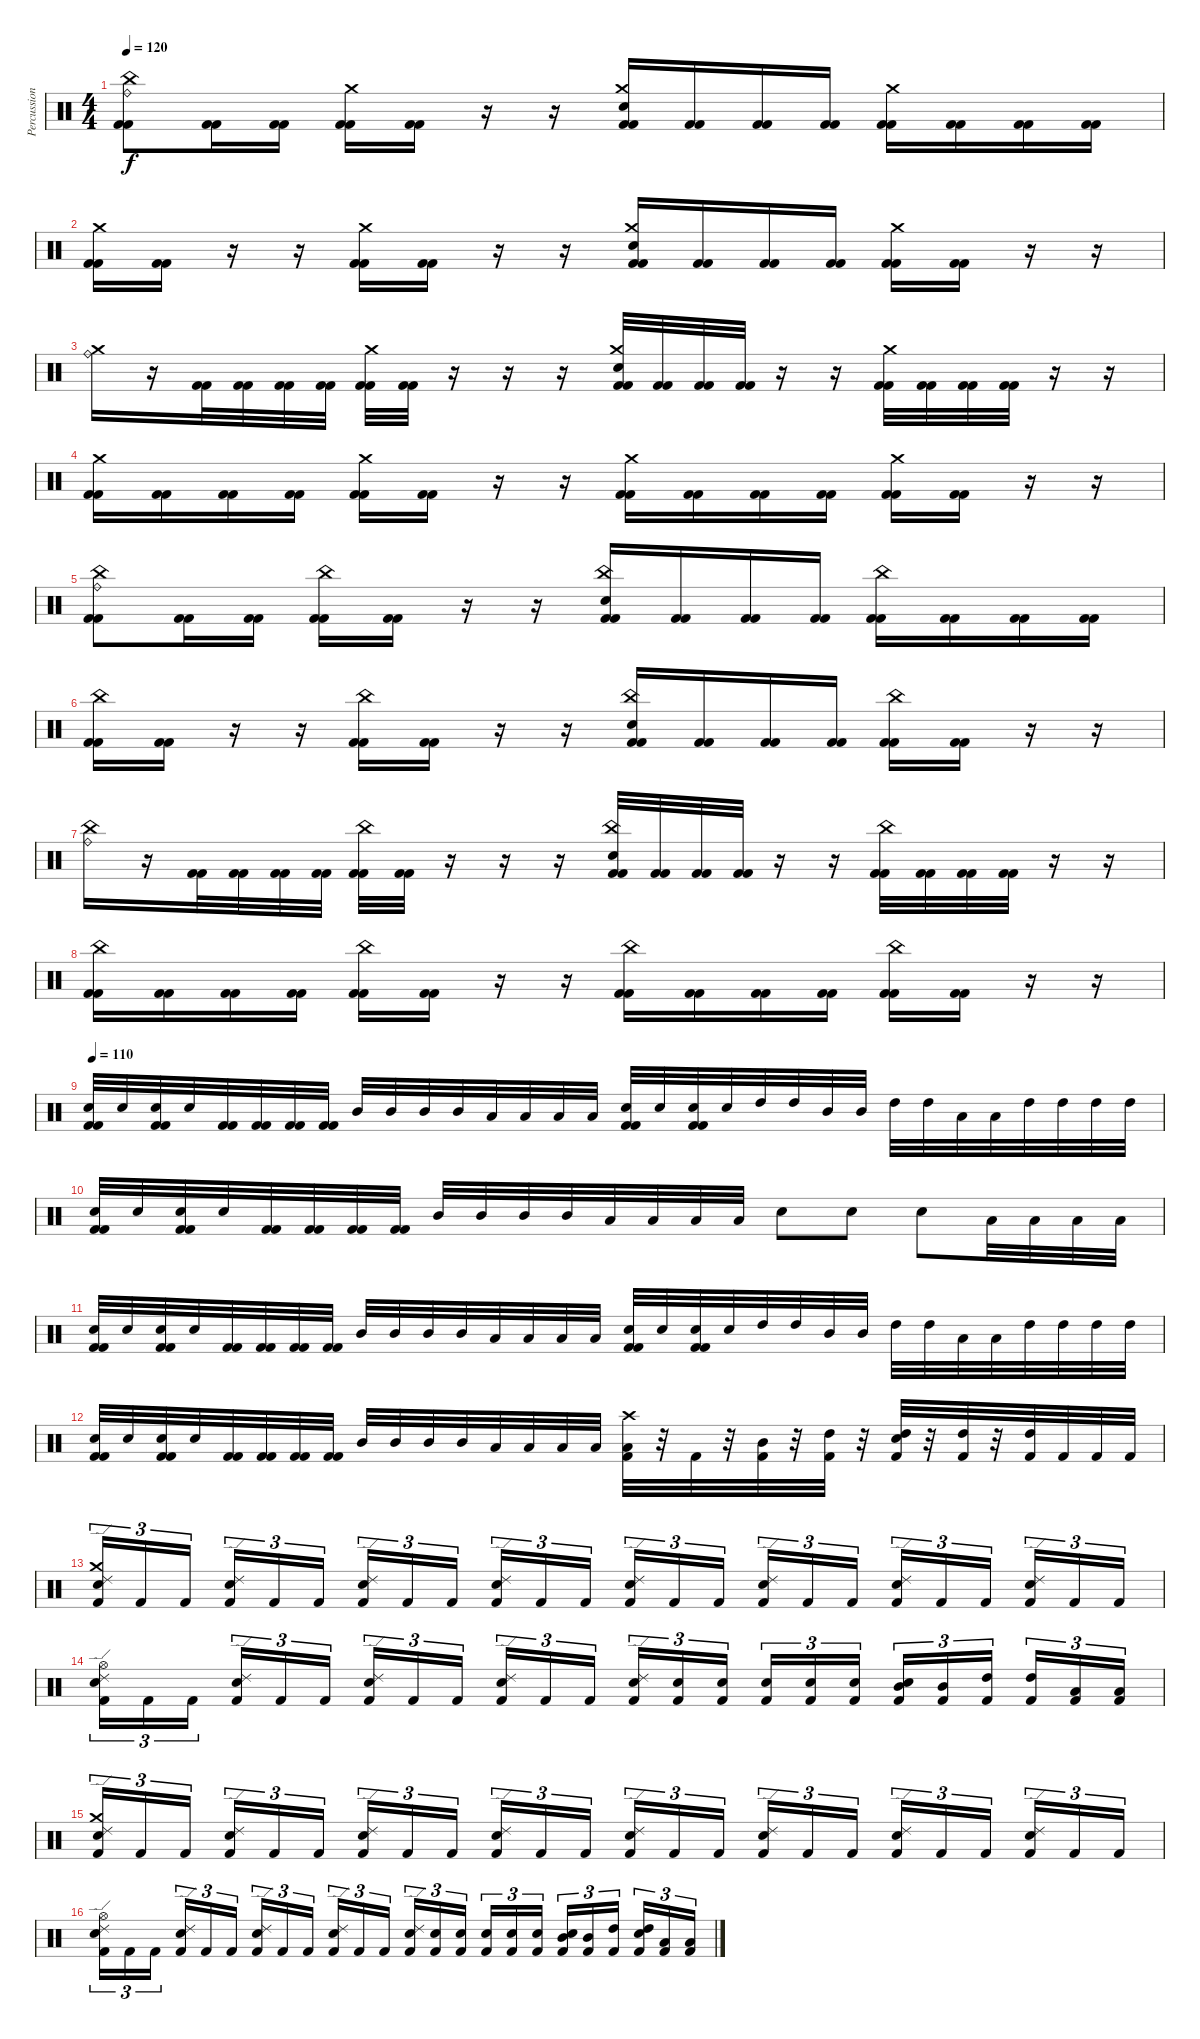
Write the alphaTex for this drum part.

\track ("Percussion" "Percussion") {instrument percussion}
\staff {score}
\articulation defaults
\ts (4 4)
\tempo 120
\clef neutral
\ks c
("Kick (hit) 2" "China (hit)" "Ride (bell)" "Kick (hit) 2").8{dy f} ("Kick (hit) 2" "Kick (hit) 2").16 ("Kick (hit) 2" "Kick (hit) 2").16 ("Kick (hit) 2" "Crash medium (hit)" "Kick (hit) 2").16 ("Kick (hit) 2" "Kick (hit) 2").16 r.16 r.16 ("Kick (hit) 2" "Crash medium (hit)" "Electric Snare (hit)" "Kick (hit) 2").16 ("Kick (hit) 2" "Kick (hit) 2").16 ("Kick (hit) 2" "Kick (hit) 2").16 ("Kick (hit) 2" "Kick (hit) 2").16 ("Kick (hit) 2" "Crash medium (hit)" "Kick (hit) 2").16 ("Kick (hit) 2" "Kick (hit) 2").16 ("Kick (hit) 2" "Kick (hit) 2").16 ("Kick (hit) 2" "Kick (hit) 2").16 |
("Kick (hit) 2" "Crash medium (hit)" "Kick (hit) 2").16 ("Kick (hit) 2" "Kick (hit) 2").16 r.16 r.16 ("Kick (hit) 2" "Crash medium (hit)" "Kick (hit) 2").16 ("Kick (hit) 2" "Kick (hit) 2").16 r.16 r.16 ("Kick (hit) 2" "Crash medium (hit)" "Electric Snare (hit)" "Kick (hit) 2").16 ("Kick (hit) 2" "Kick (hit) 2").16 ("Kick (hit) 2" "Kick (hit) 2").16 ("Kick (hit) 2" "Kick (hit) 2").16 ("Kick (hit) 2" "Crash medium (hit)" "Kick (hit) 2").16 ("Kick (hit) 2" "Kick (hit) 2").16 r.16 r.16 |
("Crash medium (hit)" "Ride (bell)").16 r.16 ("Kick (hit) 2" "Kick (hit) 2").32 ("Kick (hit) 2" "Kick (hit) 2").32 ("Kick (hit) 2" "Kick (hit) 2").32 ("Kick (hit) 2" "Kick (hit) 2").32 ("Kick (hit) 2" "Crash medium (hit)" "Kick (hit) 2").32 ("Kick (hit) 2" "Kick (hit) 2").32 r.16 r.16 r.16 ("Kick (hit) 2" "Crash medium (hit)" "Electric Snare (hit)" "Kick (hit) 2").32 ("Kick (hit) 2" "Kick (hit) 2").32 ("Kick (hit) 2" "Kick (hit) 2").32 ("Kick (hit) 2" "Kick (hit) 2").32 r.16 r.16 ("Kick (hit) 2" "Crash medium (hit)" "Kick (hit) 2").32 ("Kick (hit) 2" "Kick (hit) 2").32 ("Kick (hit) 2" "Kick (hit) 2").32 ("Kick (hit) 2" "Kick (hit) 2").32 r.16 r.16 |
("Kick (hit) 2" "Crash medium (hit)" "Kick (hit) 2").16 ("Kick (hit) 2" "Kick (hit) 2").16 ("Kick (hit) 2" "Kick (hit) 2").16 ("Kick (hit) 2" "Kick (hit) 2").16 ("Kick (hit) 2" "Crash medium (hit)" "Kick (hit) 2").16 ("Kick (hit) 2" "Kick (hit) 2").16 r.16 r.16 ("Kick (hit) 2" "Crash medium (hit)" "Kick (hit) 2").16 ("Kick (hit) 2" "Kick (hit) 2").16 ("Kick (hit) 2" "Kick (hit) 2").16 ("Kick (hit) 2" "Kick (hit) 2").16 ("Kick (hit) 2" "Crash medium (hit)" "Kick (hit) 2").16 ("Kick (hit) 2" "Kick (hit) 2").16 r.16 r.16 |
("Kick (hit) 2" "China (hit)" "Ride (bell)" "Kick (hit) 2").8 ("Kick (hit) 2" "Kick (hit) 2").16 ("Kick (hit) 2" "Kick (hit) 2").16 ("Kick (hit) 2" "China (hit)" "Kick (hit) 2").16 ("Kick (hit) 2" "Kick (hit) 2").16 r.16 r.16 ("Kick (hit) 2" "China (hit)" "Electric Snare (hit)" "Kick (hit) 2").16 ("Kick (hit) 2" "Kick (hit) 2").16 ("Kick (hit) 2" "Kick (hit) 2").16 ("Kick (hit) 2" "Kick (hit) 2").16 ("Kick (hit) 2" "China (hit)" "Kick (hit) 2").16 ("Kick (hit) 2" "Kick (hit) 2").16 ("Kick (hit) 2" "Kick (hit) 2").16 ("Kick (hit) 2" "Kick (hit) 2").16 |
("Kick (hit) 2" "China (hit)" "Kick (hit) 2").16 ("Kick (hit) 2" "Kick (hit) 2").16 r.16 r.16 ("Kick (hit) 2" "China (hit)" "Kick (hit) 2").16 ("Kick (hit) 2" "Kick (hit) 2").16 r.16 r.16 ("Kick (hit) 2" "China (hit)" "Electric Snare (hit)" "Kick (hit) 2").16 ("Kick (hit) 2" "Kick (hit) 2").16 ("Kick (hit) 2" "Kick (hit) 2").16 ("Kick (hit) 2" "Kick (hit) 2").16 ("Kick (hit) 2" "China (hit)" "Kick (hit) 2").16 ("Kick (hit) 2" "Kick (hit) 2").16 r.16 r.16 |
("China (hit)" "Ride (bell)").16 r.16 ("Kick (hit) 2" "Kick (hit) 2").32 ("Kick (hit) 2" "Kick (hit) 2").32 ("Kick (hit) 2" "Kick (hit) 2").32 ("Kick (hit) 2" "Kick (hit) 2").32 ("Kick (hit) 2" "China (hit)" "Kick (hit) 2").32 ("Kick (hit) 2" "Kick (hit) 2").32 r.16 r.16 r.16 ("Kick (hit) 2" "China (hit)" "Electric Snare (hit)" "Kick (hit) 2").32 ("Kick (hit) 2" "Kick (hit) 2").32 ("Kick (hit) 2" "Kick (hit) 2").32 ("Kick (hit) 2" "Kick (hit) 2").32 r.16 r.16 ("Kick (hit) 2" "China (hit)" "Kick (hit) 2").32 ("Kick (hit) 2" "Kick (hit) 2").32 ("Kick (hit) 2" "Kick (hit) 2").32 ("Kick (hit) 2" "Kick (hit) 2").32 r.16 r.16 |
("Kick (hit) 2" "China (hit)" "Kick (hit) 2").16 ("Kick (hit) 2" "Kick (hit) 2").16 ("Kick (hit) 2" "Kick (hit) 2").16 ("Kick (hit) 2" "Kick (hit) 2").16 ("Kick (hit) 2" "China (hit)" "Kick (hit) 2").16 ("Kick (hit) 2" "Kick (hit) 2").16 r.16 r.16 ("Kick (hit) 2" "China (hit)" "Kick (hit) 2").16 ("Kick (hit) 2" "Kick (hit) 2").16 ("Kick (hit) 2" "Kick (hit) 2").16 ("Kick (hit) 2" "Kick (hit) 2").16 ("Kick (hit) 2" "China (hit)" "Kick (hit) 2").16 ("Kick (hit) 2" "Kick (hit) 2").16 r.16 r.16 |
\tempo 110
("Kick (hit) 2" "Electric Snare (hit)" "Kick (hit) 2").32 "Electric Snare (hit)".32 ("Kick (hit) 2" "Electric Snare (hit)" "Kick (hit) 2").32 "Electric Snare (hit)".32 ("Kick (hit) 2" "Kick (hit) 2").32 ("Kick (hit) 2" "Kick (hit) 2").32 ("Kick (hit) 2" "Kick (hit) 2").32 ("Kick (hit) 2" "Kick (hit) 2").32 "Mid Tom (hit)".32 "Mid Tom (hit)".32 "Mid Tom (hit)".32 "Mid Tom (hit)".32 "Low Tom (hit)".32 "Low Tom (hit)".32 "Low Tom (hit)".32 "Low Tom (hit)".32 ("Kick (hit) 2" "Electric Snare (hit)" "Kick (hit) 2").32 "Electric Snare (hit)".32 ("Kick (hit) 2" "Electric Snare (hit)" "Kick (hit) 2").32 "Electric Snare (hit)".32 "High Tom (hit)".32 "High Tom (hit)".32 "Mid Tom (hit)".32 "Mid Tom (hit)".32 "High Tom (hit)".32 "High Tom (hit)".32 "Low Tom (hit)".32 "Low Tom (hit)".32 "High Tom (hit)".32 "High Tom (hit)".32 "High Tom (hit)".32 "High Tom (hit)".32 |
("Kick (hit) 2" "Electric Snare (hit)" "Kick (hit) 2").32 "Electric Snare (hit)".32 ("Kick (hit) 2" "Electric Snare (hit)" "Kick (hit) 2").32 "Electric Snare (hit)".32 ("Kick (hit) 2" "Kick (hit) 2").32 ("Kick (hit) 2" "Kick (hit) 2").32 ("Kick (hit) 2" "Kick (hit) 2").32 ("Kick (hit) 2" "Kick (hit) 2").32 "Mid Tom (hit)".32 "Mid Tom (hit)".32 "Mid Tom (hit)".32 "Mid Tom (hit)".32 "Low Tom (hit)".32 "Low Tom (hit)".32 "Low Tom (hit)".32 "Low Tom (hit)".32 "Electric Snare (hit)".8 "Electric Snare (hit)".8 "Electric Snare (hit)".8 "Low Tom (hit)".32 "Low Tom (hit)".32 "Low Floor Tom (hit)".32 "Low Floor Tom (hit)".32 |
("Kick (hit) 2" "Electric Snare (hit)" "Kick (hit) 2").32 "Electric Snare (hit)".32 ("Kick (hit) 2" "Electric Snare (hit)" "Kick (hit) 2").32 "Electric Snare (hit)".32 ("Kick (hit) 2" "Kick (hit) 2").32 ("Kick (hit) 2" "Kick (hit) 2").32 ("Kick (hit) 2" "Kick (hit) 2").32 ("Kick (hit) 2" "Kick (hit) 2").32 "Mid Tom (hit)".32 "Mid Tom (hit)".32 "Mid Tom (hit)".32 "Mid Tom (hit)".32 "Low Tom (hit)".32 "Low Tom (hit)".32 "Low Tom (hit)".32 "Low Tom (hit)".32 ("Kick (hit) 2" "Electric Snare (hit)" "Kick (hit) 2").32 "Electric Snare (hit)".32 ("Kick (hit) 2" "Electric Snare (hit)" "Kick (hit) 2").32 "Electric Snare (hit)".32 "High Tom (hit)".32 "High Tom (hit)".32 "Mid Tom (hit)".32 "Mid Tom (hit)".32 "High Tom (hit)".32 "High Tom (hit)".32 "Low Tom (hit)".32 "Low Tom (hit)".32 "High Tom (hit)".32 "High Tom (hit)".32 "High Tom (hit)".32 "High Tom (hit)".32 |
("Kick (hit) 2" "Electric Snare (hit)" "Kick (hit) 2").32 "Electric Snare (hit)".32 ("Kick (hit) 2" "Electric Snare (hit)" "Kick (hit) 2").32 "Electric Snare (hit)".32 ("Kick (hit) 2" "Kick (hit) 2").32 ("Kick (hit) 2" "Kick (hit) 2").32 ("Kick (hit) 2" "Kick (hit) 2").32 ("Kick (hit) 2" "Kick (hit) 2").32 "Mid Tom (hit)".32 "Mid Tom (hit)".32 "Mid Tom (hit)".32 "Mid Tom (hit)".32 "Low Tom (hit)".32 "Low Tom (hit)".32 "Low Tom (hit)".32 "Low Tom (hit)".32 ("Crash high (hit)" "Low Tom (hit)" "Kick (hit) 2").32 r.32 "Kick (hit) 2".32 r.32 ("Mid Tom (hit)" "Kick (hit) 2").32 r.32 ("High Tom (hit)" "Kick (hit) 2").32 r.32 ("Electric Snare (hit)" "High Tom (hit)" "Kick (hit) 2").32 r.32 ("High Tom (hit)" "Kick (hit) 2").32 r.32 ("High Tom (hit)" "Kick (hit) 2").32 "Kick (hit) 2".32 "Kick (hit) 2".32 "Kick (hit) 2".32 |
("Crash medium (hit)" "Ride (edge) 2" "Electric Snare (hit)" "Kick (hit) 2").16{tu (3 2)} "Kick (hit) 2".16{tu (3 2)} "Kick (hit) 2".16{tu (3 2) beam splitsecondary} ("Ride (edge) 2" "Electric Snare (hit)" "Kick (hit) 2").16{tu (3 2)} "Kick (hit) 2".16{tu (3 2)} "Kick (hit) 2".16{tu (3 2)} ("Ride (edge) 2" "Electric Snare (hit)" "Kick (hit) 2").16{tu (3 2)} "Kick (hit) 2".16{tu (3 2)} "Kick (hit) 2".16{tu (3 2) beam splitsecondary} ("Ride (edge) 2" "Electric Snare (hit)" "Kick (hit) 2").16{tu (3 2)} "Kick (hit) 2".16{tu (3 2)} "Kick (hit) 2".16{tu (3 2)} ("Ride (edge) 2" "Electric Snare (hit)" "Kick (hit) 2").16{tu (3 2)} "Kick (hit) 2".16{tu (3 2)} "Kick (hit) 2".16{tu (3 2) beam splitsecondary} ("Ride (edge) 2" "Electric Snare (hit)" "Kick (hit) 2").16{tu (3 2)} "Kick (hit) 2".16{tu (3 2)} "Kick (hit) 2".16{tu (3 2)} ("Ride (edge) 2" "Electric Snare (hit)" "Kick (hit) 2").16{tu (3 2)} "Kick (hit) 2".16{tu (3 2)} "Kick (hit) 2".16{tu (3 2) beam splitsecondary} ("Ride (edge) 2" "Electric Snare (hit)" "Kick (hit) 2").16{tu (3 2)} "Kick (hit) 2".16{tu (3 2)} "Kick (hit) 2".16{tu (3 2)} |
("Hi-Hat (open)" "Ride (edge) 2" "Electric Snare (hit)" "Kick (hit) 2").16{tu (3 2)} "Kick (hit) 2".16{tu (3 2)} "Kick (hit) 2".16{tu (3 2) beam splitsecondary} ("Ride (edge) 2" "Electric Snare (hit)" "Kick (hit) 2").16{tu (3 2)} "Kick (hit) 2".16{tu (3 2)} "Kick (hit) 2".16{tu (3 2)} ("Ride (edge) 2" "Electric Snare (hit)" "Kick (hit) 2").16{tu (3 2)} "Kick (hit) 2".16{tu (3 2)} "Kick (hit) 2".16{tu (3 2) beam splitsecondary} ("Ride (edge) 2" "Electric Snare (hit)" "Kick (hit) 2").16{tu (3 2)} "Kick (hit) 2".16{tu (3 2)} "Kick (hit) 2".16{tu (3 2)} ("Ride (edge) 2" "Electric Snare (hit)" "Kick (hit) 2").16{tu (3 2)} ("Electric Snare (hit)" "Kick (hit) 2").16{tu (3 2)} ("Electric Snare (hit)" "Kick (hit) 2").16{tu (3 2) beam splitsecondary} ("Electric Snare (hit)" "Kick (hit) 2").16{tu (3 2)} ("Electric Snare (hit)" "Kick (hit) 2").16{tu (3 2)} ("Electric Snare (hit)" "Kick (hit) 2").16{tu (3 2)} ("Electric Snare (hit)" "Mid Tom (hit)" "Kick (hit) 2").16{tu (3 2)} ("Mid Tom (hit)" "Kick (hit) 2").16{tu (3 2)} ("High Tom (hit)" "Kick (hit) 2").16{tu (3 2) beam splitsecondary} ("High Tom (hit)" "Kick (hit) 2").16{tu (3 2)} ("Low Tom (hit)" "Kick (hit) 2").16{tu (3 2)} ("Low Tom (hit)" "Kick (hit) 2").16{tu (3 2)} |
("Crash medium (hit)" "Ride (edge) 2" "Electric Snare (hit)" "Kick (hit) 2").16{tu (3 2)} "Kick (hit) 2".16{tu (3 2)} "Kick (hit) 2".16{tu (3 2) beam splitsecondary} ("Ride (edge) 2" "Electric Snare (hit)" "Kick (hit) 2").16{tu (3 2)} "Kick (hit) 2".16{tu (3 2)} "Kick (hit) 2".16{tu (3 2)} ("Ride (edge) 2" "Electric Snare (hit)" "Kick (hit) 2").16{tu (3 2)} "Kick (hit) 2".16{tu (3 2)} "Kick (hit) 2".16{tu (3 2) beam splitsecondary} ("Ride (edge) 2" "Electric Snare (hit)" "Kick (hit) 2").16{tu (3 2)} "Kick (hit) 2".16{tu (3 2)} "Kick (hit) 2".16{tu (3 2)} ("Ride (edge) 2" "Electric Snare (hit)" "Kick (hit) 2").16{tu (3 2)} "Kick (hit) 2".16{tu (3 2)} "Kick (hit) 2".16{tu (3 2) beam splitsecondary} ("Ride (edge) 2" "Electric Snare (hit)" "Kick (hit) 2").16{tu (3 2)} "Kick (hit) 2".16{tu (3 2)} "Kick (hit) 2".16{tu (3 2)} ("Ride (edge) 2" "Electric Snare (hit)" "Kick (hit) 2").16{tu (3 2)} "Kick (hit) 2".16{tu (3 2)} "Kick (hit) 2".16{tu (3 2) beam splitsecondary} ("Ride (edge) 2" "Electric Snare (hit)" "Kick (hit) 2").16{tu (3 2)} "Kick (hit) 2".16{tu (3 2)} "Kick (hit) 2".16{tu (3 2)} |
("Hi-Hat (open)" "Ride (edge) 2" "Electric Snare (hit)" "Kick (hit) 2").16{tu (3 2)} "Kick (hit) 2".16{tu (3 2)} "Kick (hit) 2".16{tu (3 2) beam splitsecondary} ("Ride (edge) 2" "Electric Snare (hit)" "Kick (hit) 2").16{tu (3 2)} "Kick (hit) 2".16{tu (3 2)} "Kick (hit) 2".16{tu (3 2)} ("Ride (edge) 2" "Electric Snare (hit)" "Kick (hit) 2").16{tu (3 2)} "Kick (hit) 2".16{tu (3 2)} "Kick (hit) 2".16{tu (3 2) beam splitsecondary} ("Ride (edge) 2" "Electric Snare (hit)" "Kick (hit) 2").16{tu (3 2)} "Kick (hit) 2".16{tu (3 2)} "Kick (hit) 2".16{tu (3 2)} ("Ride (edge) 2" "Electric Snare (hit)" "Kick (hit) 2").16{tu (3 2)} ("Electric Snare (hit)" "Kick (hit) 2").16{tu (3 2)} ("Electric Snare (hit)" "Kick (hit) 2").16{tu (3 2) beam splitsecondary} ("Electric Snare (hit)" "Kick (hit) 2").16{tu (3 2)} ("Electric Snare (hit)" "Kick (hit) 2").16{tu (3 2)} ("Electric Snare (hit)" "Kick (hit) 2").16{tu (3 2)} ("Electric Snare (hit)" "Mid Tom (hit)" "Kick (hit) 2").16{tu (3 2)} ("Mid Tom (hit)" "Kick (hit) 2").16{tu (3 2)} ("High Tom (hit)" "Kick (hit) 2").16{tu (3 2) beam splitsecondary} ("Electric Snare (hit)" "High Tom (hit)" "Kick (hit) 2").16{tu (3 2)} ("Low Tom (hit)" "Kick (hit) 2").16{tu (3 2)} ("Low Tom (hit)" "Kick (hit) 2").16{tu (3 2)}
